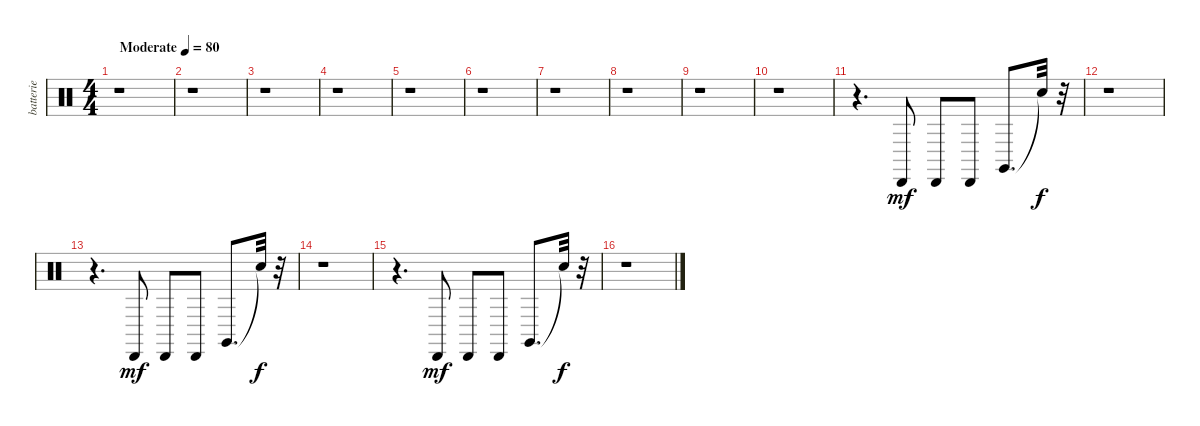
\track ("batterie" "batterie") {instrument percussion}
\staff {score}
\articulation defaults
\ts (4 4)
\tempo (80 "Moderate")
\clef neutral
\ks c
r.1{dy mf} |
r.1 |
r.1 |
r.1 |
r.1 |
r.1 |
r.1 |
r.1 |
r.1 |
r.1 |
r.4{d} "Cabasa (hit)".8 "Cabasa (hit)".8 "Cabasa (hit)".8 "Claves (hit)".8{d} "Snare (hit)"{t}.32{dy f} r.32 |
r.1 |
r.4{d} "Cabasa (hit)".8{dy mf} "Cabasa (hit)".8 "Cabasa (hit)".8 "Claves (hit)".8{d} "Snare (hit)"{t}.32{dy f} r.32 |
r.1 |
r.4{d} "Cabasa (hit)".8{dy mf} "Cabasa (hit)".8 "Cabasa (hit)".8 "Claves (hit)".8{d} "Snare (hit)"{t}.32{dy f} r.32 |
r.1
